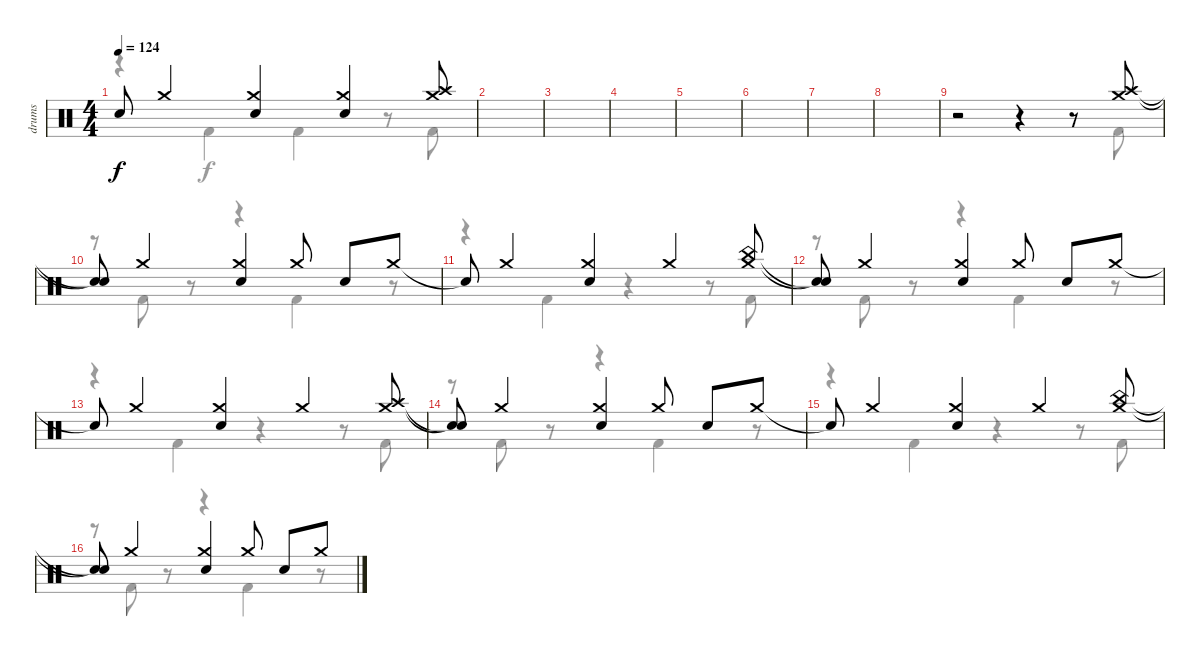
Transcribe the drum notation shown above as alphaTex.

\track ("drums" "drums") {instrument percussion}
\staff {score}
\articulation defaults
\voice
\ts (4 4)
\tempo 124
\clef neutral
\ks c "Snare (hit)"{t}.8{dy f} "Crash medium (hit)".4
("Crash medium (hit)" "Snare (hit) 2").4 ("Crash medium (hit)" "Snare (hit) 2").4 ("Crash medium (hit)" "Crash high (hit)").8 |
|
|
|
|
|
|
|
r.2 r.4 r.8 ("Crash medium (hit)" "Crash high (hit)").8 |
("Snare (hit)"{t} "Snare (hit)"{t}).8 "Crash medium (hit)".4 ("Crash medium (hit)" "Snare (hit) 2").4 "Crash medium (hit)".8 "Snare (hit) 2".8 "Crash medium (hit)".8 |
"Snare (hit)"{t}.8 "Crash medium (hit)".4 ("Crash medium (hit)" "Snare (hit) 2").4 "Crash medium (hit)".4 ("Crash medium (hit)" "China (hit)").8 |
("Snare (hit)"{t} "Snare (hit)"{t}).8 "Crash medium (hit)".4 ("Crash medium (hit)" "Snare (hit) 2").4 "Crash medium (hit)".8 "Snare (hit) 2".8 "Crash medium (hit)".8 |
"Snare (hit)"{t}.8 "Crash medium (hit)".4 ("Crash medium (hit)" "Snare (hit) 2").4 "Crash medium (hit)".4 ("Crash medium (hit)" "Crash high (hit)").8 |
("Snare (hit)"{t} "Snare (hit)"{t}).8 "Crash medium (hit)".4 ("Crash medium (hit)" "Snare (hit) 2").4 "Crash medium (hit)".8 "Snare (hit) 2".8 "Crash medium (hit)".8 |
"Snare (hit)"{t}.8 "Crash medium (hit)".4 ("Crash medium (hit)" "Snare (hit) 2").4 "Crash medium (hit)".4 ("Crash medium (hit)" "China (hit)").8 |
("Snare (hit)"{t} "Snare (hit)"{t}).8 "Crash medium (hit)".4 ("Crash medium (hit)" "Snare (hit) 2").4 "Crash medium (hit)".8 "Snare (hit) 2".8 "Crash medium (hit)".8
\voice
\clef neutral
\ottava regular
\simile none
\ks c
r.4{dy f} "Kick (hit) 2".4 "Kick (hit) 2".4 r.8 "Kick (hit) 2".8 |
|
|
|
|
|
|
|
r.2 r.4 r.8 "Kick (hit) 2".8 |
r.8 "Kick (hit) 2".8 r.8 r.4 "Kick (hit) 2".4 r.8 |
r.4 "Kick (hit) 2".4 r.4 r.8 "Kick (hit) 2".8 |
r.8 "Kick (hit) 2".8 r.8 r.4 "Kick (hit) 2".4 r.8 |
r.4 "Kick (hit) 2".4 r.4 r.8 "Kick (hit) 2".8 |
r.8 "Kick (hit) 2".8 r.8 r.4 "Kick (hit) 2".4 r.8 |
r.4 "Kick (hit) 2".4 r.4 r.8 "Kick (hit) 2".8 |
r.8 "Kick (hit) 2".8 r.8 r.4 "Kick (hit) 2".4 r.8
